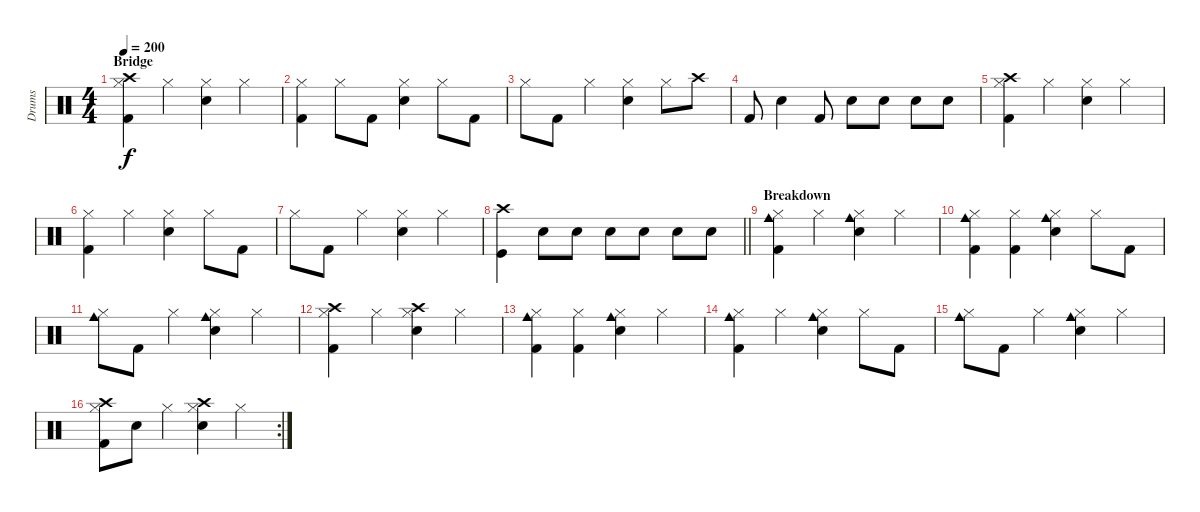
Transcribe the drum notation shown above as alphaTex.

\track ("Drums" "Drums") {instrument percussion}
\staff {score}
\articulation defaults
\ts (4 4)
\section ("" "Bridge")
\tempo 200
\clef neutral
\ks c
("Hi-Hat (closed)" "Crash high (hit)" "Kick (hit) 2").4{dy f} "Hi-Hat (closed)".4 ("Hi-Hat (closed)" "Snare (hit) 2").4 "Hi-Hat (closed)".4 |
("Hi-Hat (closed)" "Kick (hit) 2").4 "Hi-Hat (closed)".8 "Kick (hit) 2".8 ("Hi-Hat (closed)" "Snare (hit) 2").4 "Hi-Hat (closed)".8 "Kick (hit) 2".8 |
"Hi-Hat (closed)".8 "Kick (hit) 2".8 "Hi-Hat (closed)".4 ("Hi-Hat (closed)" "Snare (hit) 2").4 "Hi-Hat (closed)".8 "Crash high (hit)".8 |
"Kick (hit) 2".8 "Snare (hit) 2".4 "Kick (hit) 2".8 "Snare (hit) 2".8 "Snare (hit) 2".8 "Snare (hit) 2".8 "Snare (hit) 2".8 |
("Hi-Hat (closed)" "Crash high (hit)" "Kick (hit) 2").4 "Hi-Hat (closed)".4 ("Hi-Hat (closed)" "Snare (hit) 2").4 "Hi-Hat (closed)".4 |
("Hi-Hat (closed)" "Kick (hit) 2").4 "Hi-Hat (closed)".4 ("Hi-Hat (closed)" "Snare (hit) 2").4 "Hi-Hat (closed)".8 "Kick (hit) 2".8 |
"Hi-Hat (closed)".8 "Kick (hit) 2".8 "Hi-Hat (closed)".4 ("Hi-Hat (closed)" "Snare (hit) 2").4 "Hi-Hat (closed)".4 |
\barLineRight lightlight
("Crash high (hit)" "Kick (hit)").4 "Snare (hit) 2".8 "Snare (hit) 2".8 "Snare (hit) 2".8 "Snare (hit) 2".8 "Snare (hit) 2".8 "Snare (hit) 2".8 |
\section ("" "Breakdown")
("Hi-Hat (closed)" "Cowbell medium (hit)" "Kick (hit) 2").4 "Hi-Hat (closed)".4 ("Hi-Hat (closed)" "Cowbell medium (hit)" "Snare (hit) 2").4 "Hi-Hat (closed)".4 |
("Hi-Hat (closed)" "Cowbell medium (hit)" "Kick (hit) 2").4 ("Hi-Hat (closed)" "Kick (hit) 2").4 ("Hi-Hat (closed)" "Cowbell medium (hit)" "Snare (hit) 2").4 "Hi-Hat (closed)".8 "Kick (hit) 2".8 |
("Hi-Hat (closed)" "Cowbell medium (hit)").8 "Kick (hit) 2".8 "Hi-Hat (closed)".4 ("Hi-Hat (closed)" "Cowbell medium (hit)" "Snare (hit) 2").4 "Hi-Hat (closed)".4 |
("Hi-Hat (closed)" "Crash high (hit)" "Kick (hit) 2").4 "Hi-Hat (closed)".4 ("Hi-Hat (closed)" "Crash high (hit)" "Snare (hit) 2").4 "Hi-Hat (closed)".4 |
("Hi-Hat (closed)" "Cowbell medium (hit)" "Kick (hit) 2").4 ("Hi-Hat (closed)" "Kick (hit) 2").4 ("Hi-Hat (closed)" "Cowbell medium (hit)" "Snare (hit) 2").4 "Hi-Hat (closed)".4 |
("Hi-Hat (closed)" "Cowbell medium (hit)" "Kick (hit) 2").4 "Hi-Hat (closed)".4 ("Hi-Hat (closed)" "Cowbell medium (hit)" "Snare (hit) 2").4 "Hi-Hat (closed)".8 "Kick (hit) 2".8 |
("Hi-Hat (closed)" "Cowbell medium (hit)").8 "Kick (hit) 2".8 "Hi-Hat (closed)".4 ("Hi-Hat (closed)" "Cowbell medium (hit)" "Snare (hit) 2").4 "Hi-Hat (closed)".4 |
\rc 2
("Hi-Hat (closed)" "Crash high (hit)" "Kick (hit) 2").8 "Snare (hit) 2".8 "Hi-Hat (closed)".4 ("Hi-Hat (closed)" "Crash high (hit)" "Snare (hit) 2").4 "Hi-Hat (closed)".4
